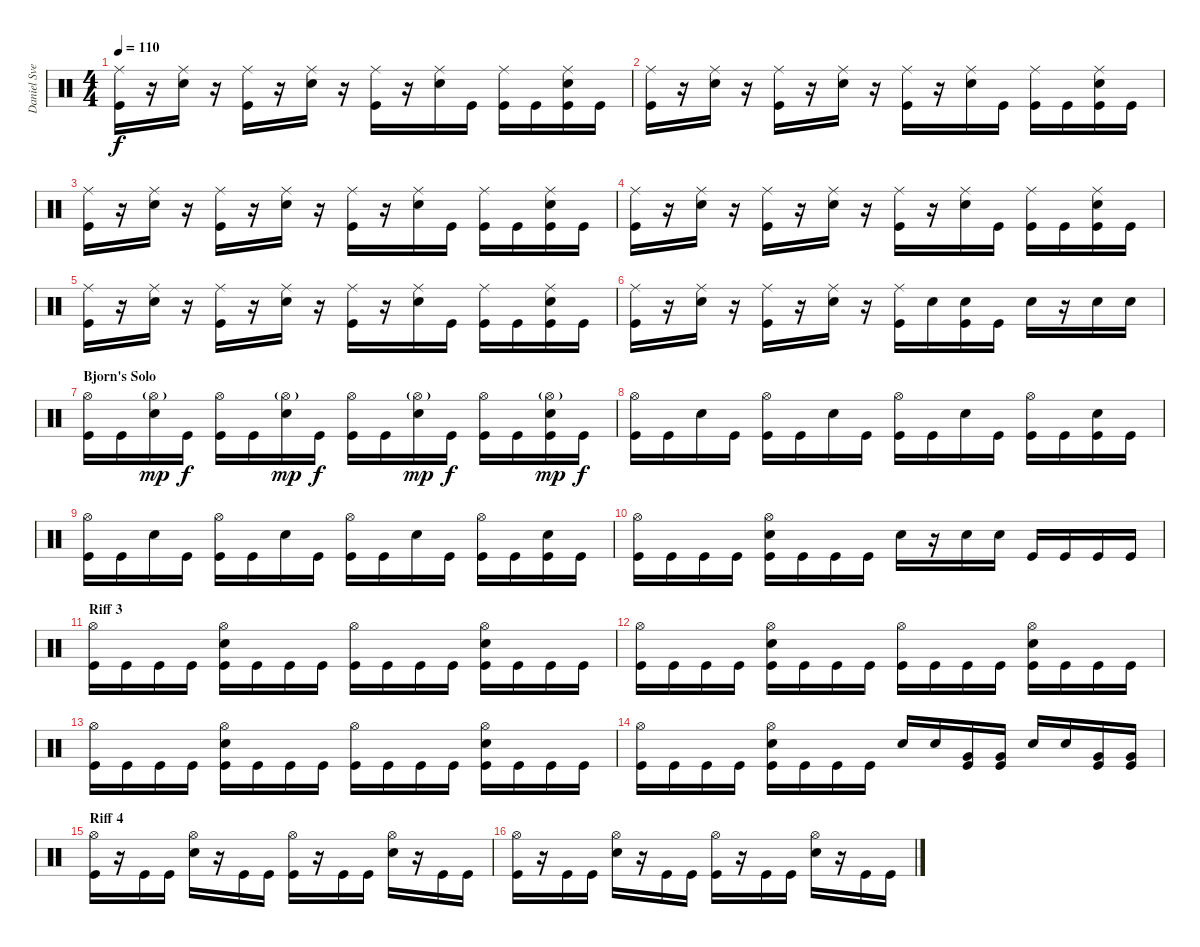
\track ("Daniel Svensson" "Daniel Sve") {instrument percussion}
\staff {score}
\articulation defaults
\ts (4 4)
\tempo 110
\clef neutral
\ks c
("Ride (middle)" "Kick (hit)").16{dy f} r.16 ("Ride (middle)" "Electric Snare (hit)").16 r.16 ("Ride (middle)" "Kick (hit)").16 r.16 ("Ride (middle)" "Electric Snare (hit)").16 r.16 ("Ride (middle)" "Kick (hit)").16 r.16 ("Ride (middle)" "Electric Snare (hit)").16 "Kick (hit)".16 ("Ride (middle)" "Kick (hit)").16 "Kick (hit)".16 ("Ride (middle)" "Electric Snare (hit)" "Kick (hit)").16 "Kick (hit)".16 |
("Ride (middle)" "Kick (hit)").16 r.16 ("Ride (middle)" "Electric Snare (hit)").16 r.16 ("Ride (middle)" "Kick (hit)").16 r.16 ("Ride (middle)" "Electric Snare (hit)").16 r.16 ("Ride (middle)" "Kick (hit)").16 r.16 ("Ride (middle)" "Electric Snare (hit)").16 "Kick (hit)".16 ("Ride (middle)" "Kick (hit)").16 "Kick (hit)".16 ("Ride (middle)" "Electric Snare (hit)" "Kick (hit)").16 "Kick (hit)".16 |
("Ride (middle)" "Kick (hit)").16 r.16 ("Ride (middle)" "Electric Snare (hit)").16 r.16 ("Ride (middle)" "Kick (hit)").16 r.16 ("Ride (middle)" "Electric Snare (hit)").16 r.16 ("Ride (middle)" "Kick (hit)").16 r.16 ("Ride (middle)" "Electric Snare (hit)").16 "Kick (hit)".16 ("Ride (middle)" "Kick (hit)").16 "Kick (hit)".16 ("Ride (middle)" "Electric Snare (hit)" "Kick (hit)").16 "Kick (hit)".16 |
("Ride (middle)" "Kick (hit)").16 r.16 ("Ride (middle)" "Electric Snare (hit)").16 r.16 ("Ride (middle)" "Kick (hit)").16 r.16 ("Ride (middle)" "Electric Snare (hit)").16 r.16 ("Ride (middle)" "Kick (hit)").16 r.16 ("Ride (middle)" "Electric Snare (hit)").16 "Kick (hit)".16 ("Ride (middle)" "Kick (hit)").16 "Kick (hit)".16 ("Ride (middle)" "Electric Snare (hit)" "Kick (hit)").16 "Kick (hit)".16 |
("Ride (middle)" "Kick (hit)").16 r.16 ("Ride (middle)" "Electric Snare (hit)").16 r.16 ("Ride (middle)" "Kick (hit)").16 r.16 ("Ride (middle)" "Electric Snare (hit)").16 r.16 ("Ride (middle)" "Kick (hit)").16 r.16 ("Ride (middle)" "Electric Snare (hit)").16 "Kick (hit)".16 ("Ride (middle)" "Kick (hit)").16 "Kick (hit)".16 ("Ride (middle)" "Electric Snare (hit)" "Kick (hit)").16 "Kick (hit)".16 |
("Ride (middle)" "Kick (hit)").16 r.16 ("Ride (middle)" "Electric Snare (hit)").16 r.16 ("Ride (middle)" "Kick (hit)").16 r.16 ("Ride (middle)" "Electric Snare (hit)").16 r.16 ("Ride (middle)" "Kick (hit)").16 "Electric Snare (hit)".16 ("Electric Snare (hit)" "Kick (hit)").16 "Kick (hit)".16 "Electric Snare (hit)".16 r.16 "Electric Snare (hit)".16 "Electric Snare (hit)".16 |
\section ("" "Bjorn's Solo")
("Hi-Hat (open)" "Kick (hit)").16 "Kick (hit)".16 ("Hi-Hat (open)"{g} "Electric Snare (hit)").16{dy mp} "Kick (hit)".16{dy f} ("Hi-Hat (open)" "Kick (hit)").16 "Kick (hit)".16 ("Hi-Hat (open)"{g} "Electric Snare (hit)").16{dy mp} "Kick (hit)".16{dy f} ("Hi-Hat (open)" "Kick (hit)").16 "Kick (hit)".16 ("Hi-Hat (open)"{g} "Electric Snare (hit)").16{dy mp} "Kick (hit)".16{dy f} ("Hi-Hat (open)" "Kick (hit)").16 "Kick (hit)".16 ("Hi-Hat (open)"{g} "Electric Snare (hit)" "Kick (hit)").16{dy mp} "Kick (hit)".16{dy f} |
("Hi-Hat (open)" "Kick (hit)").16 "Kick (hit)".16 "Electric Snare (hit)".16 "Kick (hit)".16 ("Hi-Hat (open)" "Kick (hit)").16 "Kick (hit)".16 "Electric Snare (hit)".16 "Kick (hit)".16 ("Hi-Hat (open)" "Kick (hit)").16 "Kick (hit)".16 "Electric Snare (hit)".16 "Kick (hit)".16 ("Hi-Hat (open)" "Kick (hit)").16 "Kick (hit)".16 ("Electric Snare (hit)" "Kick (hit)").16 "Kick (hit)".16 |
("Hi-Hat (open)" "Kick (hit)").16 "Kick (hit)".16 "Electric Snare (hit)".16 "Kick (hit)".16 ("Hi-Hat (open)" "Kick (hit)").16 "Kick (hit)".16 "Electric Snare (hit)".16 "Kick (hit)".16 ("Hi-Hat (open)" "Kick (hit)").16 "Kick (hit)".16 "Electric Snare (hit)".16 "Kick (hit)".16 ("Hi-Hat (open)" "Kick (hit)").16 "Kick (hit)".16 ("Electric Snare (hit)" "Kick (hit)").16 "Kick (hit)".16 |
("Hi-Hat (open)" "Kick (hit)").16 "Kick (hit)".16 "Kick (hit)".16 "Kick (hit)".16 ("Hi-Hat (open)" "Electric Snare (hit)" "Kick (hit)").16 "Kick (hit)".16 "Kick (hit)".16 "Kick (hit)".16 "Electric Snare (hit)".16 r.16 "Electric Snare (hit)".16 "Electric Snare (hit)".16 "Kick (hit)".16 "Kick (hit)".16 "Kick (hit)".16 "Kick (hit)".16 |
\section ("" "Riff 3")
("Hi-Hat (open)" "Kick (hit)").16 "Kick (hit)".16 "Kick (hit)".16 "Kick (hit)".16 ("Hi-Hat (open)" "Electric Snare (hit)" "Kick (hit)").16 "Kick (hit)".16 "Kick (hit)".16 "Kick (hit)".16 ("Hi-Hat (open)" "Kick (hit)").16 "Kick (hit)".16 "Kick (hit)".16 "Kick (hit)".16 ("Hi-Hat (open)" "Electric Snare (hit)" "Kick (hit)").16 "Kick (hit)".16 "Kick (hit)".16 "Kick (hit)".16 |
("Hi-Hat (open)" "Kick (hit)").16 "Kick (hit)".16 "Kick (hit)".16 "Kick (hit)".16 ("Hi-Hat (open)" "Electric Snare (hit)" "Kick (hit)").16 "Kick (hit)".16 "Kick (hit)".16 "Kick (hit)".16 ("Hi-Hat (open)" "Kick (hit)").16 "Kick (hit)".16 "Kick (hit)".16 "Kick (hit)".16 ("Hi-Hat (open)" "Electric Snare (hit)" "Kick (hit)").16 "Kick (hit)".16 "Kick (hit)".16 "Kick (hit)".16 |
("Hi-Hat (open)" "Kick (hit)").16 "Kick (hit)".16 "Kick (hit)".16 "Kick (hit)".16 ("Hi-Hat (open)" "Electric Snare (hit)" "Kick (hit)").16 "Kick (hit)".16 "Kick (hit)".16 "Kick (hit)".16 ("Hi-Hat (open)" "Kick (hit)").16 "Kick (hit)".16 "Kick (hit)".16 "Kick (hit)".16 ("Hi-Hat (open)" "Electric Snare (hit)" "Kick (hit)").16 "Kick (hit)".16 "Kick (hit)".16 "Kick (hit)".16 |
("Hi-Hat (open)" "Kick (hit)").16 "Kick (hit)".16 "Kick (hit)".16 "Kick (hit)".16 ("Hi-Hat (open)" "Electric Snare (hit)" "Kick (hit)").16 "Kick (hit)".16 "Kick (hit)".16 "Kick (hit)".16 "Electric Snare (hit)".16 "Electric Snare (hit)".16 ("Very Low Tom (hit)" "Kick (hit)").16 ("Very Low Tom (hit)" "Kick (hit)").16 "Electric Snare (hit)".16 "Electric Snare (hit)".16 ("Very Low Tom (hit)" "Kick (hit)").16 ("Very Low Tom (hit)" "Kick (hit)").16 |
\section ("" "Riff 4")
("Hi-Hat (open)" "Kick (hit)").16 r.16 "Kick (hit)".16 "Kick (hit)".16 ("Hi-Hat (open)" "Electric Snare (hit)").16 r.16 "Kick (hit)".16 "Kick (hit)".16 ("Hi-Hat (open)" "Kick (hit)").16 r.16 "Kick (hit)".16 "Kick (hit)".16 ("Hi-Hat (open)" "Electric Snare (hit)").16 r.16 "Kick (hit)".16 "Kick (hit)".16 |
("Hi-Hat (open)" "Kick (hit)").16 r.16 "Kick (hit)".16 "Kick (hit)".16 ("Hi-Hat (open)" "Electric Snare (hit)").16 r.16 "Kick (hit)".16 "Kick (hit)".16 ("Hi-Hat (open)" "Kick (hit)").16 r.16 "Kick (hit)".16 "Kick (hit)".16 ("Hi-Hat (open)" "Electric Snare (hit)").16 r.16 "Kick (hit)".16 "Kick (hit)".16
